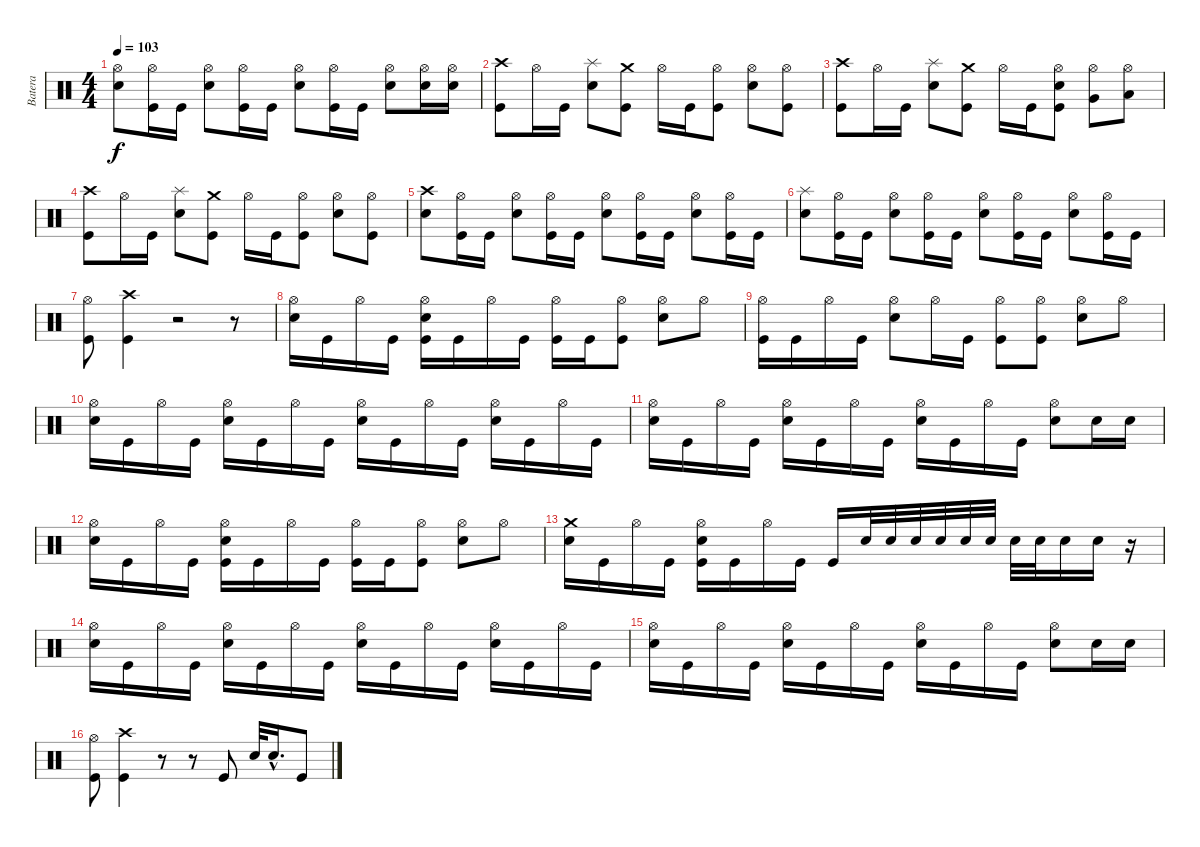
\track ("Batera" "Batera") {instrument percussion}
\staff {score}
\articulation defaults
\ts (4 4)
\tempo 103
\clef neutral
\ks c
("Hi-Hat (open)" "Snare (hit) 2").8{dy f} ("Hi-Hat (open)" "Kick (hit)").16 "Kick (hit)".16 ("Hi-Hat (open)" "Snare (hit) 2").8 ("Hi-Hat (open)" "Kick (hit)").16 "Kick (hit)".16 ("Hi-Hat (open)" "Snare (hit) 2").8 ("Hi-Hat (open)" "Kick (hit)").16 "Kick (hit)".16 ("Hi-Hat (open)" "Snare (hit) 2").8 ("Hi-Hat (open)" "Snare (hit) 2").16 ("Hi-Hat (open)" "Snare (hit) 2").16 |
("Crash high (hit)" "Kick (hit)").8 "Hi-Hat (open)".16 "Kick (hit)".16 ("Splash (hit)" "Snare (hit) 2").8 ("Crash medium (hit)" "Kick (hit)").8 "Hi-Hat (open)".16 "Kick (hit)".16 ("Hi-Hat (open)" "Kick (hit)").8 ("Hi-Hat (open)" "Snare (hit) 2").8 ("Hi-Hat (open)" "Kick (hit)").8 |
("Crash high (hit)" "Kick (hit)").8 "Hi-Hat (open)".16 "Kick (hit)".16 ("Splash (hit)" "Snare (hit) 2").8 ("Crash medium (hit)" "Kick (hit)").8 "Hi-Hat (open)".16 "Kick (hit)".16 ("Hi-Hat (open)" "Snare (hit) 2" "Kick (hit)").8 ("Hi-Hat (open)" "Very Low Tom (hit)").8 ("Hi-Hat (open)" "Low Floor Tom (hit)").8 |
("Crash high (hit)" "Kick (hit)").8 "Hi-Hat (open)".16 "Kick (hit)".16 ("Splash (hit)" "Snare (hit) 2").8 ("Crash medium (hit)" "Kick (hit)").8 "Hi-Hat (open)".16 "Kick (hit)".16 ("Hi-Hat (open)" "Kick (hit)").8 ("Hi-Hat (open)" "Snare (hit) 2").8 ("Hi-Hat (open)" "Kick (hit)").8 |
("Crash high (hit)" "Snare (hit) 2").8 ("Hi-Hat (open)" "Kick (hit)").16 "Kick (hit)".16 ("Hi-Hat (open)" "Snare (hit) 2").8 ("Hi-Hat (open)" "Kick (hit)").16 "Kick (hit)".16 ("Hi-Hat (open)" "Snare (hit) 2").8 ("Hi-Hat (open)" "Kick (hit)").16 "Kick (hit)".16 ("Hi-Hat (open)" "Snare (hit) 2").8 ("Hi-Hat (open)" "Kick (hit)").16 "Kick (hit)".16 |
("Splash (hit)" "Snare (hit) 2").8 ("Hi-Hat (open)" "Kick (hit)").16 "Kick (hit)".16 ("Hi-Hat (open)" "Snare (hit) 2").8 ("Hi-Hat (open)" "Kick (hit)").16 "Kick (hit)".16 ("Hi-Hat (open)" "Snare (hit) 2").8 ("Hi-Hat (open)" "Kick (hit)").16 "Kick (hit)".16 ("Hi-Hat (open)" "Snare (hit) 2").8 ("Hi-Hat (open)" "Kick (hit)").16 "Kick (hit)".16 |
("Hi-Hat (open)" "Kick (hit)").8 ("Crash high (hit)" "Kick (hit)").4 r.2 r.8 |
("Hi-Hat (open)" "Snare (hit) 2").16 "Kick (hit)".16 "Hi-Hat (open)".16 "Kick (hit)".16 ("Hi-Hat (open)" "Snare (hit) 2" "Kick (hit)").16 "Kick (hit)".16 "Hi-Hat (open)".16 "Kick (hit)".16 ("Hi-Hat (open)" "Kick (hit)").16 "Kick (hit)".16 ("Hi-Hat (open)" "Kick (hit)").8 ("Hi-Hat (open)" "Snare (hit) 2").8 "Hi-Hat (open)".8 |
("Hi-Hat (open)" "Kick (hit)").16 "Kick (hit)".16 "Hi-Hat (open)".16 "Kick (hit)".16 ("Hi-Hat (open)" "Snare (hit) 2").8 "Hi-Hat (open)".16 "Kick (hit)".16 ("Hi-Hat (open)" "Kick (hit)").8 ("Hi-Hat (open)" "Kick (hit)").8 ("Hi-Hat (open)" "Snare (hit) 2").8 "Hi-Hat (open)".8 |
("Hi-Hat (open)" "Snare (hit) 2").16 "Kick (hit)".16 "Hi-Hat (open)".16 "Kick (hit)".16 ("Hi-Hat (open)" "Snare (hit) 2").16 "Kick (hit)".16 "Hi-Hat (open)".16 "Kick (hit)".16 ("Hi-Hat (open)" "Snare (hit) 2").16 "Kick (hit)".16 "Hi-Hat (open)".16 "Kick (hit)".16 ("Hi-Hat (open)" "Snare (hit) 2").16 "Kick (hit)".16 "Hi-Hat (open)".16 "Kick (hit)".16 |
("Hi-Hat (open)" "Snare (hit) 2").16 "Kick (hit)".16 "Hi-Hat (open)".16 "Kick (hit)".16 ("Hi-Hat (open)" "Snare (hit) 2").16 "Kick (hit)".16 "Hi-Hat (open)".16 "Kick (hit)".16 ("Hi-Hat (open)" "Snare (hit) 2").16 "Kick (hit)".16 "Hi-Hat (open)".16 "Kick (hit)".16 ("Hi-Hat (open)" "Snare (hit) 2").8 "Snare (hit) 2".16 "Snare (hit) 2".16 |
("Hi-Hat (open)" "Snare (hit) 2").16 "Kick (hit)".16 "Hi-Hat (open)".16 "Kick (hit)".16 ("Hi-Hat (open)" "Snare (hit) 2" "Kick (hit)").16 "Kick (hit)".16 "Hi-Hat (open)".16 "Kick (hit)".16 ("Hi-Hat (open)" "Kick (hit)").16 "Kick (hit)".16 ("Hi-Hat (open)" "Kick (hit)").8 ("Hi-Hat (open)" "Snare (hit) 2").8 "Hi-Hat (open)".8 |
("Crash medium (hit)" "Snare (hit) 2").16 "Kick (hit)".16 "Hi-Hat (open)".16 "Kick (hit)".16 ("Hi-Hat (open)" "Snare (hit) 2" "Kick (hit)").16 "Kick (hit)".16 "Hi-Hat (open)".16 "Kick (hit)".16 "Kick (hit)".16 "Snare (hit) 2".32 "Snare (hit) 2".32 "Snare (hit) 2".32 "Snare (hit) 2".32 "Snare (hit) 2".32 "Snare (hit) 2".32 "Snare (hit) 2".32 "Snare (hit) 2".32 "Snare (hit) 2".16 "Snare (hit) 2".16 r.16 |
("Hi-Hat (open)" "Snare (hit) 2").16 "Kick (hit)".16 "Hi-Hat (open)".16 "Kick (hit)".16 ("Hi-Hat (open)" "Snare (hit) 2").16 "Kick (hit)".16 "Hi-Hat (open)".16 "Kick (hit)".16 ("Hi-Hat (open)" "Snare (hit) 2").16 "Kick (hit)".16 "Hi-Hat (open)".16 "Kick (hit)".16 ("Hi-Hat (open)" "Snare (hit) 2").16 "Kick (hit)".16 "Hi-Hat (open)".16 "Kick (hit)".16 |
("Hi-Hat (open)" "Snare (hit) 2").16 "Kick (hit)".16 "Hi-Hat (open)".16 "Kick (hit)".16 ("Hi-Hat (open)" "Snare (hit) 2").16 "Kick (hit)".16 "Hi-Hat (open)".16 "Kick (hit)".16 ("Hi-Hat (open)" "Snare (hit) 2").16 "Kick (hit)".16 "Hi-Hat (open)".16 "Kick (hit)".16 ("Hi-Hat (open)" "Snare (hit) 2").8 "Snare (hit) 2".16 "Snare (hit) 2".16 |
("Hi-Hat (open)" "Kick (hit)").8 ("Crash high (hit)" "Kick (hit)").4 r.8 r.8 "Kick (hit)".8 "Snare (hit) 2".32 "Snare (hit) 2"{hac}.16{d} "Kick (hit)".8
